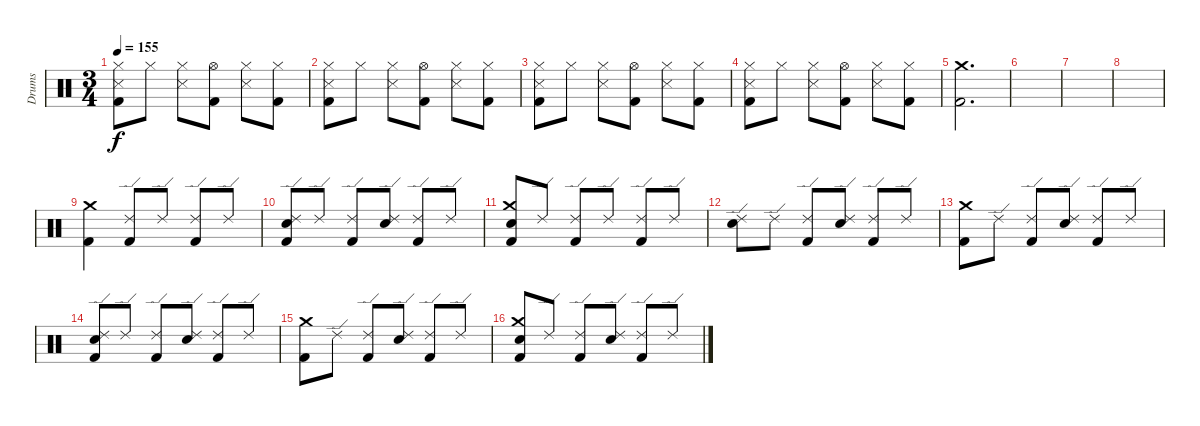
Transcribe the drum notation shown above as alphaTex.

\track ("Drums" "Drums") {instrument percussion}
\staff {score}
\articulation defaults
\ts (3 4)
\tempo 155
\clef neutral
\ks c
("Hi-Hat (closed)" "Kick (hit) 2" "Snare (side stick) 3").8{dy f} "Hi-Hat (closed)".8 ("Snare (side stick) 3" "Hi-Hat (closed)").8 ("Hi-Hat (open)" "Kick (hit) 2").8 ("Hi-Hat (closed)" "Snare (side stick) 3").8 ("Hi-Hat (closed)" "Kick (hit) 2").8 |
("Hi-Hat (closed)" "Kick (hit) 2" "Snare (side stick) 3").8 "Hi-Hat (closed)".8 ("Snare (side stick) 3" "Hi-Hat (closed)").8 ("Hi-Hat (open)" "Kick (hit) 2").8 ("Hi-Hat (closed)" "Snare (side stick) 3").8 ("Hi-Hat (closed)" "Kick (hit) 2").8 |
("Hi-Hat (closed)" "Kick (hit) 2" "Snare (side stick) 3").8 "Hi-Hat (closed)".8 ("Snare (side stick) 3" "Hi-Hat (closed)").8 ("Hi-Hat (open)" "Kick (hit) 2").8 ("Hi-Hat (closed)" "Snare (side stick) 3").8 ("Hi-Hat (closed)" "Kick (hit) 2").8 |
("Hi-Hat (closed)" "Kick (hit) 2" "Snare (side stick) 3").8 "Hi-Hat (closed)".8 ("Snare (side stick) 3" "Hi-Hat (closed)").8 ("Hi-Hat (open)" "Kick (hit) 2").8 ("Hi-Hat (closed)" "Snare (side stick) 3").8 ("Hi-Hat (closed)" "Kick (hit) 2").8 |
("Kick (hit) 2" "Crash medium (hit)").2{d} |
|
|
|
("Kick (hit) 2" "Crash medium (hit)").4 ("Kick (hit) 2" "Ride (edge) 2").8 "Ride (edge) 2".8 ("Kick (hit) 2" "Ride (edge) 2").8 "Ride (edge) 2".8 |
("Ride (edge) 2" "Snare (hit) 2" "Kick (hit) 2").8 "Ride (edge) 2".8 ("Ride (edge) 2" "Kick (hit) 2").8 ("Ride (edge) 2" "Snare (hit) 2").8 ("Ride (edge) 2" "Kick (hit) 2").8 "Ride (edge) 2".8 |
("Snare (hit) 2" "Crash medium (hit)" "Kick (hit) 2").8 "Ride (edge) 2".8 ("Ride (edge) 2" "Kick (hit) 2").8 "Ride (edge) 2".8 ("Ride (edge) 2" "Kick (hit) 2").8 "Ride (edge) 2".8 |
("Ride (edge) 2" "Snare (hit) 2").8 "Ride (edge) 2".8 ("Ride (edge) 2" "Kick (hit) 2").8 ("Ride (edge) 2" "Snare (hit) 2").8 ("Ride (edge) 2" "Kick (hit) 2").8 "Ride (edge) 2".8 |
("Kick (hit) 2" "Crash medium (hit)").8 "Ride (edge) 2".8 ("Ride (edge) 2" "Kick (hit) 2").8 ("Ride (edge) 2" "Snare (hit) 2").8 ("Ride (edge) 2" "Kick (hit) 2").8 "Ride (edge) 2".8 |
("Ride (edge) 2" "Snare (hit) 2" "Kick (hit) 2").8 "Ride (edge) 2".8 ("Ride (edge) 2" "Kick (hit) 2").8 ("Ride (edge) 2" "Snare (hit) 2").8 ("Ride (edge) 2" "Kick (hit) 2").8 "Ride (edge) 2".8 |
("Kick (hit) 2" "Crash medium (hit)").8 "Ride (edge) 2".8 ("Ride (edge) 2" "Kick (hit) 2").8 ("Ride (edge) 2" "Snare (hit) 2").8 ("Ride (edge) 2" "Kick (hit) 2").8 "Ride (edge) 2".8 |
("Kick (hit) 2" "Crash medium (hit)" "Snare (hit) 2").8 "Ride (edge) 2".8 ("Ride (edge) 2" "Kick (hit) 2").8 ("Ride (edge) 2" "Snare (hit) 2").8 ("Ride (edge) 2" "Kick (hit) 2").8 "Ride (edge) 2".8
